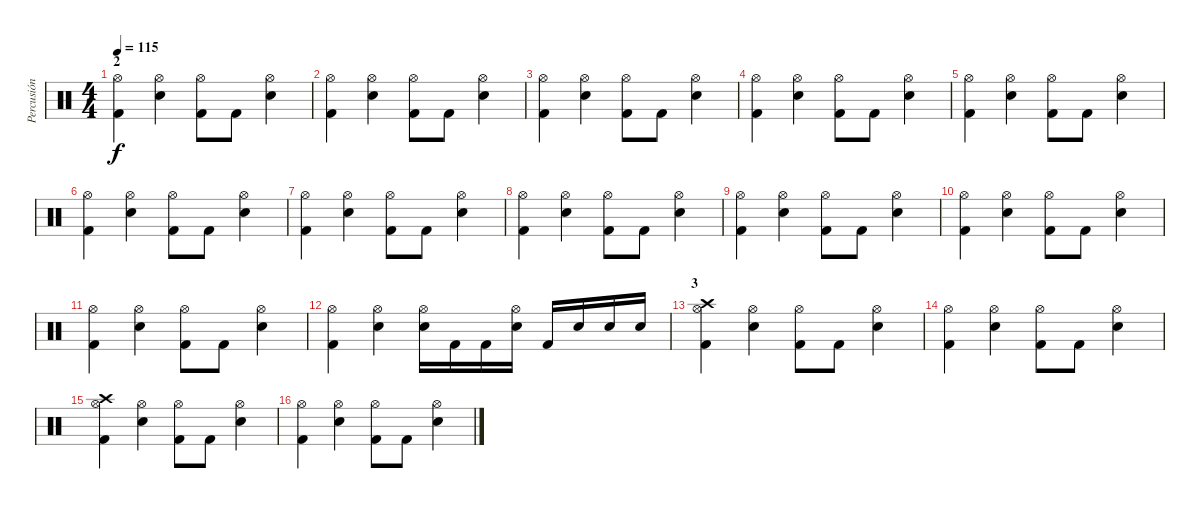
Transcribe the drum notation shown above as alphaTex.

\track ("Percusión" "Percusión") {instrument percussion}
\staff {score}
\articulation defaults
\ts (4 4)
\section ("" "2")
\tempo 115
\clef neutral
\ks c
("Hi-Hat (open)" "Kick (hit) 2").4{dy f} ("Hi-Hat (open)" "Electric Snare (hit)").4 ("Hi-Hat (open)" "Kick (hit) 2").8 "Kick (hit) 2".8 ("Hi-Hat (open)" "Electric Snare (hit)").4 |
("Hi-Hat (open)" "Kick (hit) 2").4 ("Hi-Hat (open)" "Electric Snare (hit)").4 ("Hi-Hat (open)" "Kick (hit) 2").8 "Kick (hit) 2".8 ("Hi-Hat (open)" "Electric Snare (hit)").4 |
("Hi-Hat (open)" "Kick (hit) 2").4 ("Hi-Hat (open)" "Electric Snare (hit)").4 ("Hi-Hat (open)" "Kick (hit) 2").8 "Kick (hit) 2".8 ("Hi-Hat (open)" "Electric Snare (hit)").4 |
("Hi-Hat (open)" "Kick (hit) 2").4 ("Hi-Hat (open)" "Electric Snare (hit)").4 ("Hi-Hat (open)" "Kick (hit) 2").8 "Kick (hit) 2".8 ("Hi-Hat (open)" "Electric Snare (hit)").4 |
("Hi-Hat (open)" "Kick (hit) 2").4 ("Hi-Hat (open)" "Electric Snare (hit)").4 ("Hi-Hat (open)" "Kick (hit) 2").8 "Kick (hit) 2".8 ("Hi-Hat (open)" "Electric Snare (hit)").4 |
("Hi-Hat (open)" "Kick (hit) 2").4 ("Hi-Hat (open)" "Electric Snare (hit)").4 ("Hi-Hat (open)" "Kick (hit) 2").8 "Kick (hit) 2".8 ("Hi-Hat (open)" "Electric Snare (hit)").4 |
("Hi-Hat (open)" "Kick (hit) 2").4 ("Hi-Hat (open)" "Electric Snare (hit)").4 ("Hi-Hat (open)" "Kick (hit) 2").8 "Kick (hit) 2".8 ("Hi-Hat (open)" "Electric Snare (hit)").4 |
("Hi-Hat (open)" "Kick (hit) 2").4 ("Hi-Hat (open)" "Electric Snare (hit)").4 ("Hi-Hat (open)" "Kick (hit) 2").8 "Kick (hit) 2".8 ("Hi-Hat (open)" "Electric Snare (hit)").4 |
("Hi-Hat (open)" "Kick (hit) 2").4 ("Hi-Hat (open)" "Electric Snare (hit)").4 ("Hi-Hat (open)" "Kick (hit) 2").8 "Kick (hit) 2".8 ("Hi-Hat (open)" "Electric Snare (hit)").4 |
("Hi-Hat (open)" "Kick (hit) 2").4 ("Hi-Hat (open)" "Electric Snare (hit)").4 ("Hi-Hat (open)" "Kick (hit) 2").8 "Kick (hit) 2".8 ("Hi-Hat (open)" "Electric Snare (hit)").4 |
("Hi-Hat (open)" "Kick (hit) 2").4 ("Hi-Hat (open)" "Electric Snare (hit)").4 ("Hi-Hat (open)" "Kick (hit) 2").8 "Kick (hit) 2".8 ("Hi-Hat (open)" "Electric Snare (hit)").4 |
("Hi-Hat (open)" "Kick (hit) 2").4 ("Hi-Hat (open)" "Electric Snare (hit)").4 ("Hi-Hat (open)" "Electric Snare (hit)").16 "Kick (hit) 2".16 "Kick (hit) 2".16 ("Hi-Hat (open)" "Electric Snare (hit)").16 "Kick (hit) 2".16 "Electric Snare (hit)".16 "Electric Snare (hit)".16 "Electric Snare (hit)".16 |
\section ("" "3")
("Crash high (hit)" "Hi-Hat (open)" "Kick (hit) 2").4 ("Hi-Hat (open)" "Electric Snare (hit)").4 ("Hi-Hat (open)" "Kick (hit) 2").8 "Kick (hit) 2".8 ("Hi-Hat (open)" "Electric Snare (hit)").4 |
("Hi-Hat (open)" "Kick (hit) 2").4 ("Hi-Hat (open)" "Electric Snare (hit)").4 ("Hi-Hat (open)" "Kick (hit) 2").8 "Kick (hit) 2".8 ("Hi-Hat (open)" "Electric Snare (hit)").4 |
("Crash high (hit)" "Hi-Hat (open)" "Kick (hit) 2").4 ("Hi-Hat (open)" "Electric Snare (hit)").4 ("Hi-Hat (open)" "Kick (hit) 2").8 "Kick (hit) 2".8 ("Hi-Hat (open)" "Electric Snare (hit)").4 |
("Hi-Hat (open)" "Kick (hit) 2").4 ("Hi-Hat (open)" "Electric Snare (hit)").4 ("Hi-Hat (open)" "Kick (hit) 2").8 "Kick (hit) 2".8 ("Hi-Hat (open)" "Electric Snare (hit)").4
